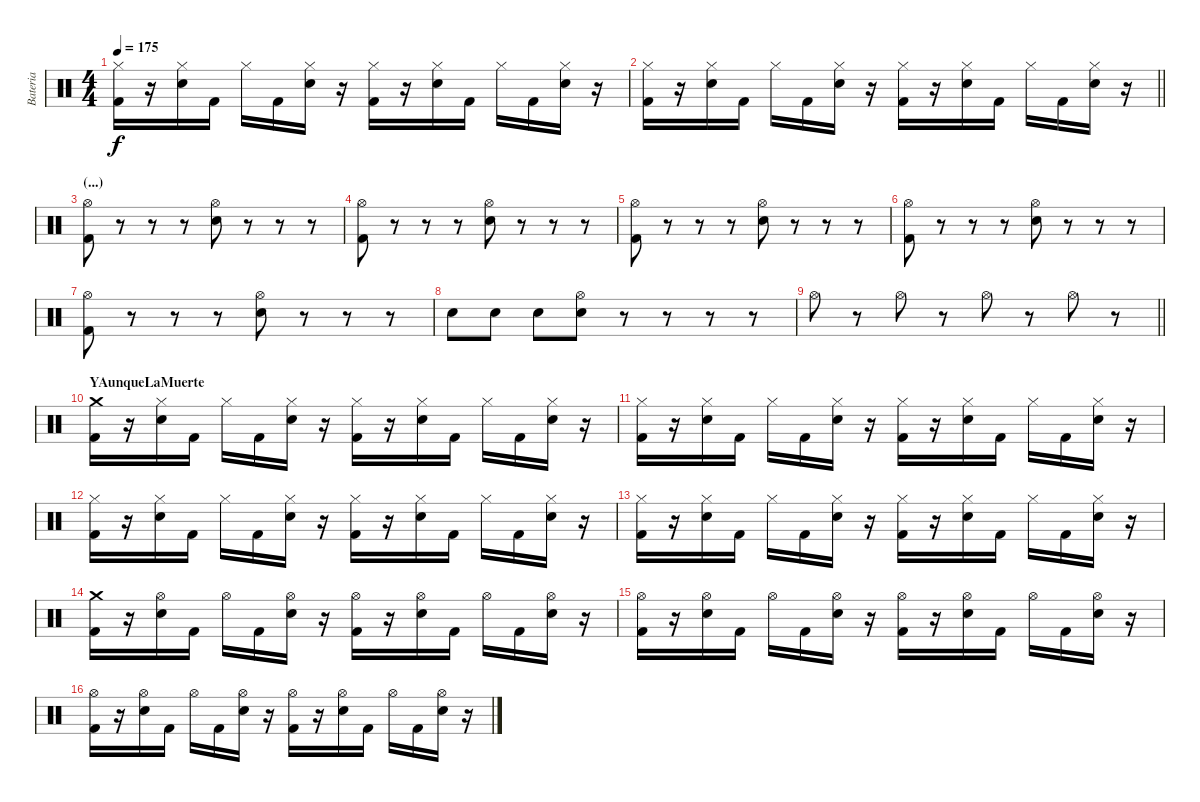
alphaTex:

\track ("Bateria" "Bateria") {instrument percussion}
\staff {score}
\articulation defaults
\ts (4 4)
\tempo 175
\clef neutral
\ks c
("Hi-Hat (closed)" "Kick (hit) 2").16{dy f} r.16 ("Hi-Hat (closed)" "Snare (hit) 2").16 "Kick (hit) 2".16 "Hi-Hat (closed)".16 "Kick (hit) 2".16 ("Hi-Hat (closed)" "Snare (hit) 2").16 r.16 ("Hi-Hat (closed)" "Kick (hit) 2").16 r.16 ("Hi-Hat (closed)" "Snare (hit) 2").16 "Kick (hit) 2".16 "Hi-Hat (closed)".16 "Kick (hit) 2".16 ("Hi-Hat (closed)" "Snare (hit) 2").16 r.16 |
\barLineRight lightlight
("Hi-Hat (closed)" "Kick (hit) 2").16 r.16 ("Hi-Hat (closed)" "Snare (hit) 2").16 "Kick (hit) 2".16 "Hi-Hat (closed)".16 "Kick (hit) 2".16 ("Hi-Hat (closed)" "Snare (hit) 2").16 r.16 ("Hi-Hat (closed)" "Kick (hit) 2").16 r.16 ("Hi-Hat (closed)" "Snare (hit) 2").16 "Kick (hit) 2".16 "Hi-Hat (closed)".16 "Kick (hit) 2".16 ("Hi-Hat (closed)" "Snare (hit) 2").16 r.16 |
\section ("" "(...)")
("Hi-Hat (open)" "Kick (hit) 2").8 r.8 r.8 r.8 ("Hi-Hat (open)" "Snare (hit) 2").8 r.8 r.8 r.8 |
("Hi-Hat (open)" "Kick (hit) 2").8 r.8 r.8 r.8 ("Hi-Hat (open)" "Snare (hit) 2").8 r.8 r.8 r.8 |
("Hi-Hat (open)" "Kick (hit) 2").8 r.8 r.8 r.8 ("Hi-Hat (open)" "Snare (hit) 2").8 r.8 r.8 r.8 |
("Hi-Hat (open)" "Kick (hit) 2").8 r.8 r.8 r.8 ("Hi-Hat (open)" "Snare (hit) 2").8 r.8 r.8 r.8 |
("Hi-Hat (open)" "Kick (hit) 2").8 r.8 r.8 r.8 ("Hi-Hat (open)" "Snare (hit) 2").8 r.8 r.8 r.8 |
"Snare (hit) 2".8 "Snare (hit) 2".8 "Snare (hit) 2".8 ("Hi-Hat (open)" "Snare (hit) 2").8 r.8 r.8 r.8 r.8 |
\barLineRight lightlight "Hi-Hat (open)".8
r.8 "Hi-Hat (open)".8 r.8 "Hi-Hat (open)".8 r.8 "Hi-Hat (open)".8 r.8 |
\section ("" "YAunqueLaMuerte")
("Crash medium (hit)" "Kick (hit) 2").16 r.16 ("Hi-Hat (closed)" "Snare (hit) 2").16 "Kick (hit) 2".16 "Hi-Hat (closed)".16 "Kick (hit) 2".16 ("Hi-Hat (closed)" "Snare (hit) 2").16 r.16 ("Hi-Hat (closed)" "Kick (hit) 2").16 r.16 ("Hi-Hat (closed)" "Snare (hit) 2").16 "Kick (hit) 2".16 "Hi-Hat (closed)".16 "Kick (hit) 2".16 ("Hi-Hat (closed)" "Snare (hit) 2").16 r.16 |
("Hi-Hat (closed)" "Kick (hit) 2").16 r.16 ("Hi-Hat (closed)" "Snare (hit) 2").16 "Kick (hit) 2".16 "Hi-Hat (closed)".16 "Kick (hit) 2".16 ("Hi-Hat (closed)" "Snare (hit) 2").16 r.16 ("Hi-Hat (closed)" "Kick (hit) 2").16 r.16 ("Hi-Hat (closed)" "Snare (hit) 2").16 "Kick (hit) 2".16 "Hi-Hat (closed)".16 "Kick (hit) 2".16 ("Hi-Hat (closed)" "Snare (hit) 2").16 r.16 |
("Hi-Hat (closed)" "Kick (hit) 2").16 r.16 ("Hi-Hat (closed)" "Snare (hit) 2").16 "Kick (hit) 2".16 "Hi-Hat (closed)".16 "Kick (hit) 2".16 ("Hi-Hat (closed)" "Snare (hit) 2").16 r.16 ("Hi-Hat (closed)" "Kick (hit) 2").16 r.16 ("Hi-Hat (closed)" "Snare (hit) 2").16 "Kick (hit) 2".16 "Hi-Hat (closed)".16 "Kick (hit) 2".16 ("Hi-Hat (closed)" "Snare (hit) 2").16 r.16 |
("Hi-Hat (closed)" "Kick (hit) 2").16 r.16 ("Hi-Hat (closed)" "Snare (hit) 2").16 "Kick (hit) 2".16 "Hi-Hat (closed)".16 "Kick (hit) 2".16 ("Hi-Hat (closed)" "Snare (hit) 2").16 r.16 ("Hi-Hat (closed)" "Kick (hit) 2").16 r.16 ("Hi-Hat (closed)" "Snare (hit) 2").16 "Kick (hit) 2".16 "Hi-Hat (closed)".16 "Kick (hit) 2".16 ("Hi-Hat (closed)" "Snare (hit) 2").16 r.16 |
("Crash medium (hit)" "Kick (hit) 2").16 r.16 ("Hi-Hat (open)" "Snare (hit) 2").16 "Kick (hit) 2".16 "Hi-Hat (open)".16 "Kick (hit) 2".16 ("Hi-Hat (open)" "Snare (hit) 2").16 r.16 ("Hi-Hat (open)" "Kick (hit) 2").16 r.16 ("Hi-Hat (open)" "Snare (hit) 2").16 "Kick (hit) 2".16 "Hi-Hat (open)".16 "Kick (hit) 2".16 ("Hi-Hat (open)" "Snare (hit) 2").16 r.16 |
("Hi-Hat (open)" "Kick (hit) 2").16 r.16 ("Hi-Hat (open)" "Snare (hit) 2").16 "Kick (hit) 2".16 "Hi-Hat (open)".16 "Kick (hit) 2".16 ("Hi-Hat (open)" "Snare (hit) 2").16 r.16 ("Hi-Hat (open)" "Kick (hit) 2").16 r.16 ("Hi-Hat (open)" "Snare (hit) 2").16 "Kick (hit) 2".16 "Hi-Hat (open)".16 "Kick (hit) 2".16 ("Hi-Hat (open)" "Snare (hit) 2").16 r.16 |
("Hi-Hat (open)" "Kick (hit) 2").16 r.16 ("Hi-Hat (open)" "Snare (hit) 2").16 "Kick (hit) 2".16 "Hi-Hat (open)".16 "Kick (hit) 2".16 ("Hi-Hat (open)" "Snare (hit) 2").16 r.16 ("Hi-Hat (open)" "Kick (hit) 2").16 r.16 ("Hi-Hat (open)" "Snare (hit) 2").16 "Kick (hit) 2".16 "Hi-Hat (open)".16 "Kick (hit) 2".16 ("Hi-Hat (open)" "Snare (hit) 2").16 r.16
